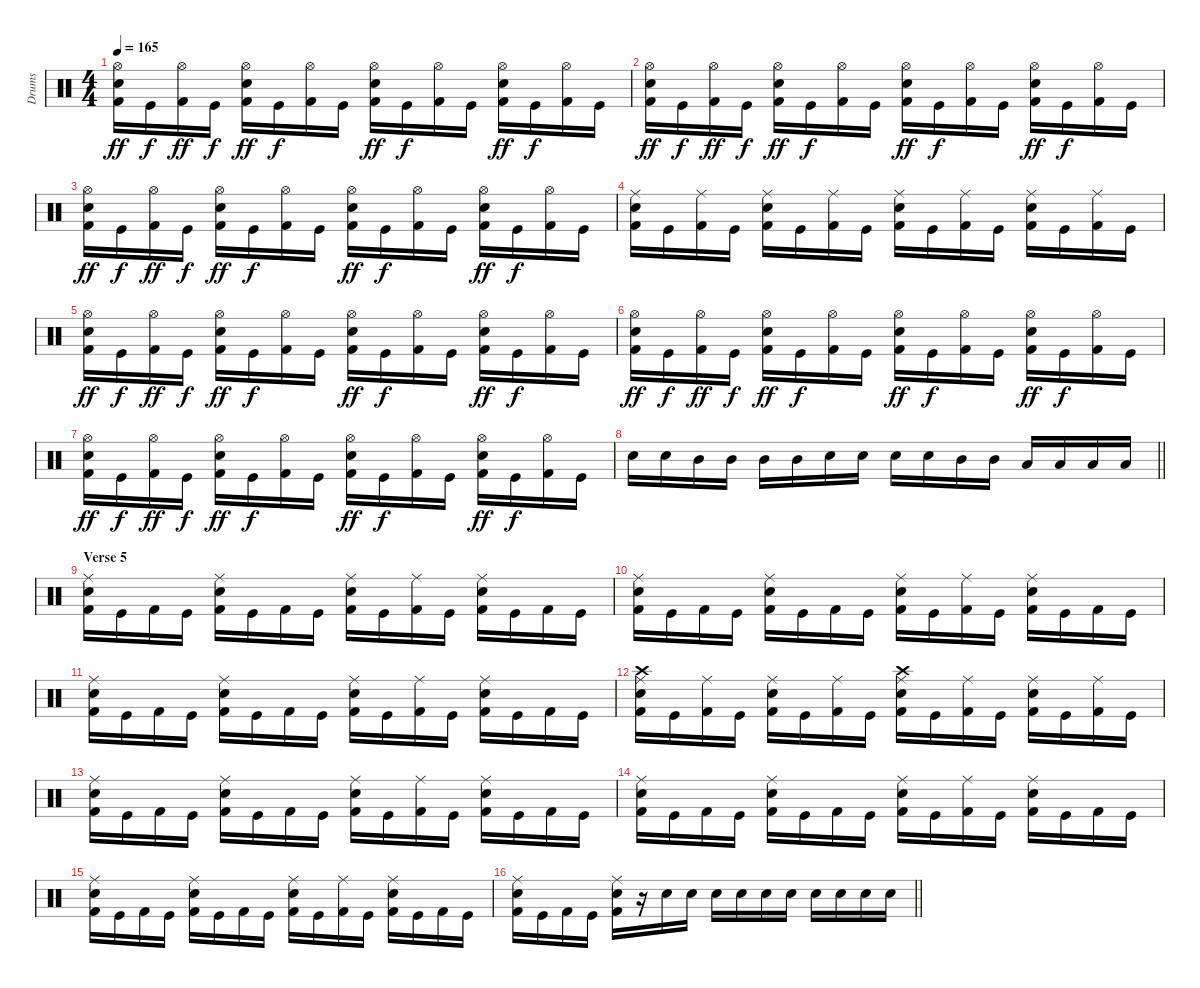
\track ("Drums" "Drums") {instrument percussion}
\staff {score}
\articulation defaults
\ts (4 4)
\tempo 165
\clef neutral
\ks c
("Hi-Hat (open)" "Snare (hit) 2" "Kick (hit) 2").16{dy ff} "Kick (hit)".16{dy f} ("Hi-Hat (open)" "Kick (hit) 2").16{dy ff} "Kick (hit)".16{dy f} ("Hi-Hat (open)" "Snare (hit) 2" "Kick (hit) 2").16{dy ff} "Kick (hit)".16{dy f} ("Hi-Hat (open)" "Kick (hit) 2").16 "Kick (hit)".16 ("Hi-Hat (open)" "Snare (hit) 2" "Kick (hit) 2").16{dy ff} "Kick (hit)".16{dy f} ("Hi-Hat (open)" "Kick (hit) 2").16 "Kick (hit)".16 ("Hi-Hat (open)" "Snare (hit) 2" "Kick (hit) 2").16{dy ff} "Kick (hit)".16{dy f} ("Hi-Hat (open)" "Kick (hit) 2").16 "Kick (hit)".16 |
("Hi-Hat (open)" "Snare (hit) 2" "Kick (hit) 2").16{dy ff} "Kick (hit)".16{dy f} ("Hi-Hat (open)" "Kick (hit) 2").16{dy ff} "Kick (hit)".16{dy f} ("Hi-Hat (open)" "Snare (hit) 2" "Kick (hit) 2").16{dy ff} "Kick (hit)".16{dy f} ("Hi-Hat (open)" "Kick (hit) 2").16 "Kick (hit)".16 ("Hi-Hat (open)" "Snare (hit) 2" "Kick (hit) 2").16{dy ff} "Kick (hit)".16{dy f} ("Hi-Hat (open)" "Kick (hit) 2").16 "Kick (hit)".16 ("Hi-Hat (open)" "Snare (hit) 2" "Kick (hit) 2").16{dy ff} "Kick (hit)".16{dy f} ("Hi-Hat (open)" "Kick (hit) 2").16 "Kick (hit)".16 |
("Hi-Hat (open)" "Snare (hit) 2" "Kick (hit) 2").16{dy ff} "Kick (hit)".16{dy f} ("Hi-Hat (open)" "Kick (hit) 2").16{dy ff} "Kick (hit)".16{dy f} ("Hi-Hat (open)" "Snare (hit) 2" "Kick (hit) 2").16{dy ff} "Kick (hit)".16{dy f} ("Hi-Hat (open)" "Kick (hit) 2").16 "Kick (hit)".16 ("Hi-Hat (open)" "Snare (hit) 2" "Kick (hit) 2").16{dy ff} "Kick (hit)".16{dy f} ("Hi-Hat (open)" "Kick (hit) 2").16 "Kick (hit)".16 ("Hi-Hat (open)" "Snare (hit) 2" "Kick (hit) 2").16{dy ff} "Kick (hit)".16{dy f} ("Hi-Hat (open)" "Kick (hit) 2").16 "Kick (hit)".16 |
("Snare (hit) 2" "Ride (middle)" "Kick (hit) 2").16 "Kick (hit)".16 ("Ride (middle)" "Kick (hit) 2").16 "Kick (hit)".16 ("Snare (hit) 2" "Ride (middle)" "Kick (hit) 2").16 "Kick (hit)".16 ("Ride (middle)" "Kick (hit) 2").16 "Kick (hit)".16 ("Snare (hit) 2" "Ride (middle)" "Kick (hit) 2").16 "Kick (hit)".16 ("Ride (middle)" "Kick (hit) 2").16 "Kick (hit)".16 ("Snare (hit) 2" "Ride (middle)" "Kick (hit) 2").16 "Kick (hit)".16 ("Ride (middle)" "Kick (hit) 2").16 "Kick (hit)".16 |
("Hi-Hat (open)" "Snare (hit) 2" "Kick (hit) 2").16{dy ff} "Kick (hit)".16{dy f} ("Hi-Hat (open)" "Kick (hit) 2").16{dy ff} "Kick (hit)".16{dy f} ("Hi-Hat (open)" "Snare (hit) 2" "Kick (hit) 2").16{dy ff} "Kick (hit)".16{dy f} ("Hi-Hat (open)" "Kick (hit) 2").16 "Kick (hit)".16 ("Hi-Hat (open)" "Snare (hit) 2" "Kick (hit) 2").16{dy ff} "Kick (hit)".16{dy f} ("Hi-Hat (open)" "Kick (hit) 2").16 "Kick (hit)".16 ("Hi-Hat (open)" "Snare (hit) 2" "Kick (hit) 2").16{dy ff} "Kick (hit)".16{dy f} ("Hi-Hat (open)" "Kick (hit) 2").16 "Kick (hit)".16 |
("Hi-Hat (open)" "Snare (hit) 2" "Kick (hit) 2").16{dy ff} "Kick (hit)".16{dy f} ("Hi-Hat (open)" "Kick (hit) 2").16{dy ff} "Kick (hit)".16{dy f} ("Hi-Hat (open)" "Snare (hit) 2" "Kick (hit) 2").16{dy ff} "Kick (hit)".16{dy f} ("Hi-Hat (open)" "Kick (hit) 2").16 "Kick (hit)".16 ("Hi-Hat (open)" "Snare (hit) 2" "Kick (hit) 2").16{dy ff} "Kick (hit)".16{dy f} ("Hi-Hat (open)" "Kick (hit) 2").16 "Kick (hit)".16 ("Hi-Hat (open)" "Snare (hit) 2" "Kick (hit) 2").16{dy ff} "Kick (hit)".16{dy f} ("Hi-Hat (open)" "Kick (hit) 2").16 "Kick (hit)".16 |
("Hi-Hat (open)" "Snare (hit) 2" "Kick (hit) 2").16{dy ff} "Kick (hit)".16{dy f} ("Hi-Hat (open)" "Kick (hit) 2").16{dy ff} "Kick (hit)".16{dy f} ("Hi-Hat (open)" "Snare (hit) 2" "Kick (hit) 2").16{dy ff} "Kick (hit)".16{dy f} ("Hi-Hat (open)" "Kick (hit) 2").16 "Kick (hit)".16 ("Hi-Hat (open)" "Snare (hit) 2" "Kick (hit) 2").16{dy ff} "Kick (hit)".16{dy f} ("Hi-Hat (open)" "Kick (hit) 2").16 "Kick (hit)".16 ("Hi-Hat (open)" "Snare (hit) 2" "Kick (hit) 2").16{dy ff} "Kick (hit)".16{dy f} ("Hi-Hat (open)" "Kick (hit) 2").16 "Kick (hit)".16 |
\barLineRight lightlight "Snare (hit) 2".16 "Snare (hit) 2".16 "Mid Tom (hit)".16 "Mid Tom (hit)".16 "Mid Tom (hit)".16 "Mid Tom (hit)".16 "Snare (hit) 2".16 "Snare (hit) 2".16 "Snare (hit) 2".16 "Snare (hit) 2".16 "Mid Tom (hit)".16 "Mid Tom (hit)".16 "Low Tom (hit)".16 "Low Tom (hit)".16 "Low Tom (hit)".16 "Low Tom (hit)".16
|
\section ("" "Verse 5")
("Snare (hit) 2" "Ride (middle)" "Kick (hit) 2").16 "Kick (hit)".16 "Kick (hit) 2".16 "Kick (hit)".16 ("Snare (hit) 2" "Ride (middle)" "Kick (hit) 2").16 "Kick (hit)".16 "Kick (hit) 2".16 "Kick (hit)".16 ("Snare (hit) 2" "Ride (middle)" "Kick (hit) 2").16 "Kick (hit)".16 ("Ride (middle)" "Kick (hit) 2").16 "Kick (hit)".16 ("Snare (hit) 2" "Ride (middle)" "Kick (hit) 2").16 "Kick (hit)".16 "Kick (hit) 2".16 "Kick (hit)".16 |
("Snare (hit) 2" "Ride (middle)" "Kick (hit) 2").16 "Kick (hit)".16 "Kick (hit) 2".16 "Kick (hit)".16 ("Snare (hit) 2" "Ride (middle)" "Kick (hit) 2").16 "Kick (hit)".16 "Kick (hit) 2".16 "Kick (hit)".16 ("Snare (hit) 2" "Ride (middle)" "Kick (hit) 2").16 "Kick (hit)".16 ("Ride (middle)" "Kick (hit) 2").16 "Kick (hit)".16 ("Snare (hit) 2" "Ride (middle)" "Kick (hit) 2").16 "Kick (hit)".16 "Kick (hit) 2".16 "Kick (hit)".16 |
("Snare (hit) 2" "Ride (middle)" "Kick (hit) 2").16 "Kick (hit)".16 "Kick (hit) 2".16 "Kick (hit)".16 ("Snare (hit) 2" "Ride (middle)" "Kick (hit) 2").16 "Kick (hit)".16 "Kick (hit) 2".16 "Kick (hit)".16 ("Snare (hit) 2" "Ride (middle)" "Kick (hit) 2").16 "Kick (hit)".16 ("Ride (middle)" "Kick (hit) 2").16 "Kick (hit)".16 ("Snare (hit) 2" "Ride (middle)" "Kick (hit) 2").16 "Kick (hit)".16 "Kick (hit) 2".16 "Kick (hit)".16 |
("Crash high (hit)" "Snare (hit) 2" "Ride (middle)" "Kick (hit) 2").16 "Kick (hit)".16 ("Ride (middle)" "Kick (hit) 2").16 "Kick (hit)".16 ("Snare (hit) 2" "Ride (middle)" "Kick (hit) 2").16 "Kick (hit)".16 ("Ride (middle)" "Kick (hit) 2").16 "Kick (hit)".16 ("Crash high (hit)" "Snare (hit) 2" "Ride (middle)" "Kick (hit) 2").16 "Kick (hit)".16 ("Ride (middle)" "Kick (hit) 2").16 "Kick (hit)".16 ("Snare (hit) 2" "Ride (middle)" "Kick (hit) 2").16 "Kick (hit)".16 ("Ride (middle)" "Kick (hit) 2").16 "Kick (hit)".16 |
("Snare (hit) 2" "Ride (middle)" "Kick (hit) 2").16 "Kick (hit)".16 "Kick (hit) 2".16 "Kick (hit)".16 ("Snare (hit) 2" "Ride (middle)" "Kick (hit) 2").16 "Kick (hit)".16 "Kick (hit) 2".16 "Kick (hit)".16 ("Snare (hit) 2" "Ride (middle)" "Kick (hit) 2").16 "Kick (hit)".16 ("Ride (middle)" "Kick (hit) 2").16 "Kick (hit)".16 ("Snare (hit) 2" "Ride (middle)" "Kick (hit) 2").16 "Kick (hit)".16 "Kick (hit) 2".16 "Kick (hit)".16 |
("Snare (hit) 2" "Ride (middle)" "Kick (hit) 2").16 "Kick (hit)".16 "Kick (hit) 2".16 "Kick (hit)".16 ("Snare (hit) 2" "Ride (middle)" "Kick (hit) 2").16 "Kick (hit)".16 "Kick (hit) 2".16 "Kick (hit)".16 ("Snare (hit) 2" "Ride (middle)" "Kick (hit) 2").16 "Kick (hit)".16 ("Ride (middle)" "Kick (hit) 2").16 "Kick (hit)".16 ("Snare (hit) 2" "Ride (middle)" "Kick (hit) 2").16 "Kick (hit)".16 "Kick (hit) 2".16 "Kick (hit)".16 |
("Snare (hit) 2" "Ride (middle)" "Kick (hit) 2").16 "Kick (hit)".16 "Kick (hit) 2".16 "Kick (hit)".16 ("Snare (hit) 2" "Ride (middle)" "Kick (hit) 2").16 "Kick (hit)".16 "Kick (hit) 2".16 "Kick (hit)".16 ("Snare (hit) 2" "Ride (middle)" "Kick (hit) 2").16 "Kick (hit)".16 ("Ride (middle)" "Kick (hit) 2").16 "Kick (hit)".16 ("Snare (hit) 2" "Ride (middle)" "Kick (hit) 2").16 "Kick (hit)".16 "Kick (hit) 2".16 "Kick (hit)".16 |
\barLineRight lightlight
("Snare (hit) 2" "Ride (middle)" "Kick (hit) 2").16 "Kick (hit)".16 "Kick (hit) 2".16 "Kick (hit)".16 ("Snare (hit) 2" "Ride (middle)" "Kick (hit) 2").16 r.16 "Snare (hit) 2".16 "Snare (hit) 2".16 "Snare (hit) 2".16 "Snare (hit) 2".16 "Snare (hit) 2".16 "Snare (hit) 2".16 "Snare (hit) 2".16 "Snare (hit) 2".16 "Snare (hit) 2".16 "Snare (hit) 2".16
